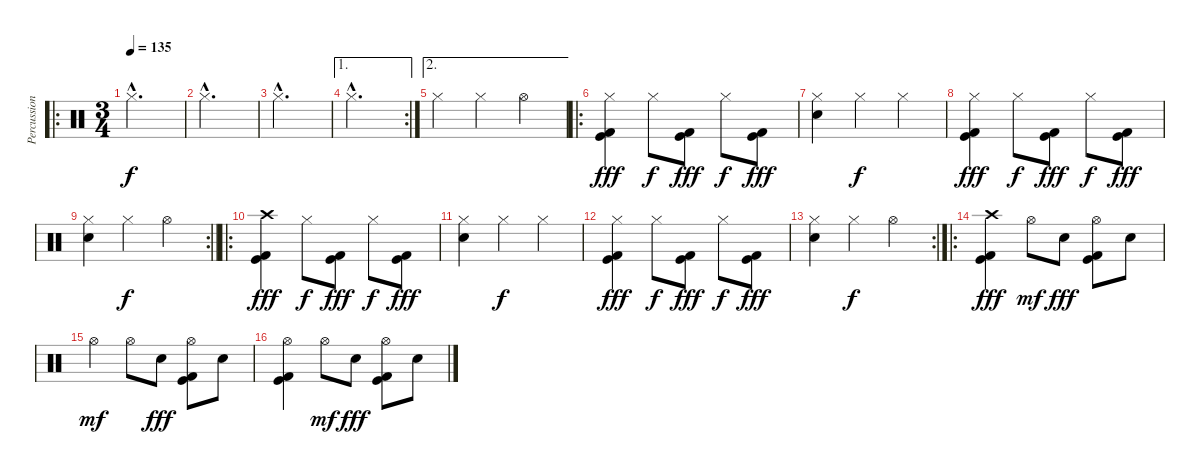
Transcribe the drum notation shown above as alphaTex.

\track ("Percussion" "Percussion") {instrument percussion}
\staff {score}
\articulation defaults
\ro
\ts (3 4)
\tempo 135
\clef neutral
\ks c "Hi-Hat (closed)"{hac}.2{d dy f}
|
"Hi-Hat (closed)"{hac}.2{d} |
"Hi-Hat (closed)"{hac}.2{d} |
\ae 1
\rc 2 "Hi-Hat (closed)"{hac}.2{d}
|
\ae 2 "Hi-Hat (closed)".4 "Hi-Hat (closed)".4 "Hi-Hat (open)".4
|
\ro
("Hi-Hat (closed)" "Kick (hit)" "Kick (hit) 2").4{dy fff} "Hi-Hat (closed)".8{dy f} ("Kick (hit)" "Kick (hit) 2").8{dy fff} "Hi-Hat (closed)".8{dy f} ("Kick (hit)" "Kick (hit) 2").8{dy fff} |
("Hi-Hat (closed)" "Electric Snare (hit)").4 "Hi-Hat (closed)".4{dy f} "Hi-Hat (closed)".4 |
("Hi-Hat (closed)" "Kick (hit)" "Kick (hit) 2").4{dy fff} "Hi-Hat (closed)".8{dy f} ("Kick (hit)" "Kick (hit) 2").8{dy fff} "Hi-Hat (closed)".8{dy f} ("Kick (hit)" "Kick (hit) 2").8{dy fff} |
\rc 2
\barLineRight lightlight
("Hi-Hat (closed)" "Electric Snare (hit)").4 "Hi-Hat (closed)".4{dy f} "Hi-Hat (open)".4 |
\ro
("Crash high (hit)" "Kick (hit)" "Kick (hit) 2").4{dy fff} "Hi-Hat (closed)".8{dy f} ("Kick (hit)" "Kick (hit) 2").8{dy fff} "Hi-Hat (closed)".8{dy f} ("Kick (hit)" "Kick (hit) 2").8{dy fff} |
("Hi-Hat (closed)" "Electric Snare (hit)").4 "Hi-Hat (closed)".4{dy f} "Hi-Hat (closed)".4 |
("Hi-Hat (closed)" "Kick (hit)" "Kick (hit) 2").4{dy fff} "Hi-Hat (closed)".8{dy f} ("Kick (hit)" "Kick (hit) 2").8{dy fff} "Hi-Hat (closed)".8{dy f} ("Kick (hit)" "Kick (hit) 2").8{dy fff} |
\rc 2
("Hi-Hat (closed)" "Electric Snare (hit)").4 "Hi-Hat (closed)".4{dy f} "Hi-Hat (open)".4 |
\ro
("Crash high (hit)" "Kick (hit)" "Kick (hit) 2").4{dy fff} "Hi-Hat (open)".8{dy mf} "Electric Snare (hit)".8{dy fff} ("Hi-Hat (open)" "Kick (hit)" "Kick (hit) 2").8 "Electric Snare (hit)".8 |
"Hi-Hat (open)".4{dy mf} "Hi-Hat (open)".8 "Electric Snare (hit)".8{dy fff} ("Hi-Hat (open)" "Kick (hit)" "Kick (hit) 2").8 "Electric Snare (hit)".8 |
("Hi-Hat (open)" "Kick (hit)" "Kick (hit) 2").4 "Hi-Hat (open)".8{dy mf} "Electric Snare (hit)".8{dy fff} ("Hi-Hat (open)" "Kick (hit)" "Kick (hit) 2").8 "Electric Snare (hit)".8
